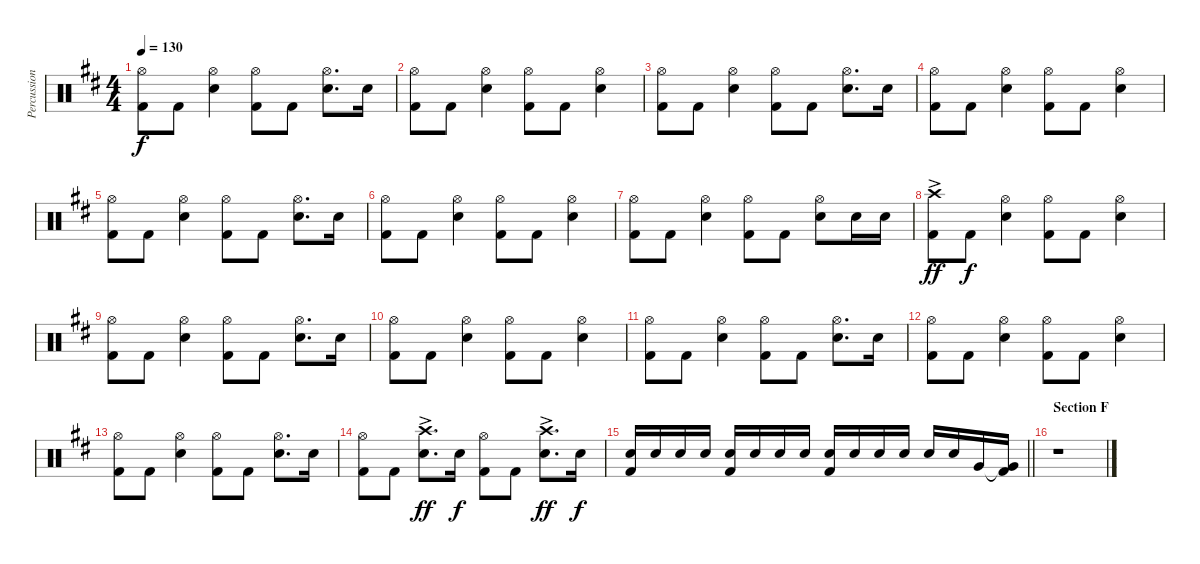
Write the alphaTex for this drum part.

\track ("Percussion" "Percussion") {instrument percussion}
\staff {score}
\articulation defaults
\ts (4 4)
\tempo 130
\clef neutral
\ks d
("Hi-Hat (open)" "Kick (hit) 2").8{dy f} "Kick (hit) 2".8 ("Hi-Hat (open)" "Snare (hit) 2").4 ("Hi-Hat (open)" "Kick (hit) 2").8 "Kick (hit) 2".8 ("Hi-Hat (open)" "Snare (hit) 2").8{d} "Snare (hit) 2".16 |
("Hi-Hat (open)" "Kick (hit) 2").8 "Kick (hit) 2".8 ("Hi-Hat (open)" "Snare (hit) 2").4 ("Hi-Hat (open)" "Kick (hit) 2").8 "Kick (hit) 2".8 ("Hi-Hat (open)" "Snare (hit) 2").4 |
("Hi-Hat (open)" "Kick (hit) 2").8 "Kick (hit) 2".8 ("Hi-Hat (open)" "Snare (hit) 2").4 ("Hi-Hat (open)" "Kick (hit) 2").8 "Kick (hit) 2".8 ("Hi-Hat (open)" "Snare (hit) 2").8{d} "Snare (hit) 2".16 |
("Hi-Hat (open)" "Kick (hit) 2").8 "Kick (hit) 2".8 ("Hi-Hat (open)" "Snare (hit) 2").4 ("Hi-Hat (open)" "Kick (hit) 2").8 "Kick (hit) 2".8 ("Hi-Hat (open)" "Snare (hit) 2").4 |
("Hi-Hat (open)" "Kick (hit) 2").8 "Kick (hit) 2".8 ("Hi-Hat (open)" "Snare (hit) 2").4 ("Hi-Hat (open)" "Kick (hit) 2").8 "Kick (hit) 2".8 ("Hi-Hat (open)" "Snare (hit) 2").8{d} "Snare (hit) 2".16 |
("Hi-Hat (open)" "Kick (hit) 2").8 "Kick (hit) 2".8 ("Hi-Hat (open)" "Snare (hit) 2").4 ("Hi-Hat (open)" "Kick (hit) 2").8 "Kick (hit) 2".8 ("Hi-Hat (open)" "Snare (hit) 2").4 |
("Hi-Hat (open)" "Kick (hit) 2").8 "Kick (hit) 2".8 ("Hi-Hat (open)" "Snare (hit) 2").4 ("Hi-Hat (open)" "Kick (hit) 2").8 "Kick (hit) 2".8 ("Hi-Hat (open)" "Snare (hit) 2").8 "Snare (hit) 2".16 "Snare (hit) 2".16 |
("Crash high (hit)"{ac} "Kick (hit) 2").8{dy ff} "Kick (hit) 2".8{dy f} ("Hi-Hat (open)" "Snare (hit) 2").4 ("Hi-Hat (open)" "Kick (hit) 2").8 "Kick (hit) 2".8 ("Hi-Hat (open)" "Snare (hit) 2").4 |
("Hi-Hat (open)" "Kick (hit) 2").8 "Kick (hit) 2".8 ("Hi-Hat (open)" "Snare (hit) 2").4 ("Hi-Hat (open)" "Kick (hit) 2").8 "Kick (hit) 2".8 ("Hi-Hat (open)" "Snare (hit) 2").8{d} "Snare (hit) 2".16 |
("Hi-Hat (open)" "Kick (hit) 2").8 "Kick (hit) 2".8 ("Hi-Hat (open)" "Snare (hit) 2").4 ("Hi-Hat (open)" "Kick (hit) 2").8 "Kick (hit) 2".8 ("Hi-Hat (open)" "Snare (hit) 2").4 |
("Hi-Hat (open)" "Kick (hit) 2").8 "Kick (hit) 2".8 ("Hi-Hat (open)" "Snare (hit) 2").4 ("Hi-Hat (open)" "Kick (hit) 2").8 "Kick (hit) 2".8 ("Hi-Hat (open)" "Snare (hit) 2").8{d} "Snare (hit) 2".16 |
("Hi-Hat (open)" "Kick (hit) 2").8 "Kick (hit) 2".8 ("Hi-Hat (open)" "Snare (hit) 2").4 ("Hi-Hat (open)" "Kick (hit) 2").8 "Kick (hit) 2".8 ("Hi-Hat (open)" "Snare (hit) 2").4 |
("Hi-Hat (open)" "Kick (hit) 2").8 "Kick (hit) 2".8 ("Hi-Hat (open)" "Snare (hit) 2").4 ("Hi-Hat (open)" "Kick (hit) 2").8 "Kick (hit) 2".8 ("Hi-Hat (open)" "Snare (hit) 2").8{d} "Snare (hit) 2".16 |
("Hi-Hat (open)" "Kick (hit) 2").8 "Kick (hit) 2".8 ("Crash high (hit)"{ac} "Snare (hit) 2").8{d dy ff} "Snare (hit) 2".16{dy f} ("Hi-Hat (open)" "Kick (hit) 2").8 "Kick (hit) 2".8 ("Crash high (hit)"{ac} "Snare (hit) 2").8{d dy ff} "Snare (hit) 2".16{dy f} |
\barLineRight lightlight
("Snare (hit) 2" "Kick (hit) 2").16 "Snare (hit) 2".16 "Snare (hit) 2".16 "Snare (hit) 2".16 ("Snare (hit) 2" "Kick (hit) 2").16 "Snare (hit) 2".16 "Snare (hit) 2".16 "Snare (hit) 2".16 ("Snare (hit) 2" "Kick (hit) 2").16 "Snare (hit) 2".16 "Snare (hit) 2".16 "Snare (hit) 2".16 "Snare (hit) 2".16 "Snare (hit) 2".16 "Very Low Tom (hit)".16 ("Very Low Tom (hit)"{t} "Kick (hit) 2").16 |
\section ("" "Section F")
r.1
